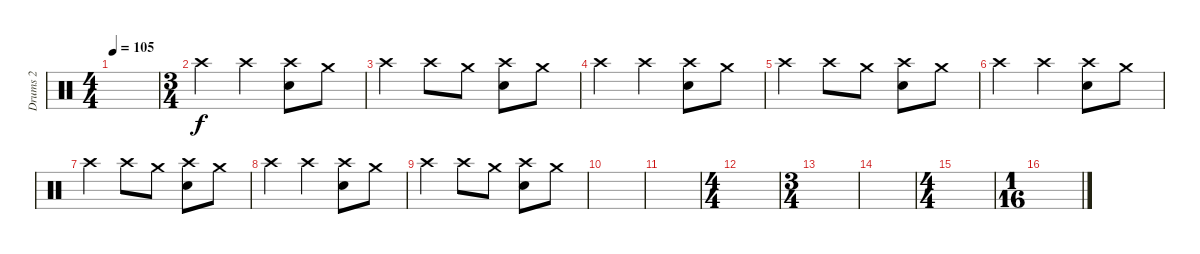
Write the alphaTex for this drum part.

\track ("Drums 2" "Drums 2") {instrument percussion}
\staff
\articulation defaults
\ts (4 4)
\tempo 105
\clef neutral
\ks c
|
\ts (3 4)
"Crash high (hit)".4 "Crash high (hit)".4 ("Crash high (hit)" "Electric Snare (hit)").8 "Crash medium (hit)".8 |
"Crash high (hit)".4 "Crash high (hit)".8 "Crash medium (hit)".8 ("Crash high (hit)" "Electric Snare (hit)").8 "Crash medium (hit)".8 |
"Crash high (hit)".4 "Crash high (hit)".4 ("Crash high (hit)" "Electric Snare (hit)").8 "Crash medium (hit)".8 |
"Crash high (hit)".4 "Crash high (hit)".8 "Crash medium (hit)".8 ("Crash high (hit)" "Electric Snare (hit)").8 "Crash medium (hit)".8 |
"Crash high (hit)".4 "Crash high (hit)".4 ("Crash high (hit)" "Electric Snare (hit)").8 "Crash medium (hit)".8 |
"Crash high (hit)".4 "Crash high (hit)".8 "Crash medium (hit)".8 ("Crash high (hit)" "Electric Snare (hit)").8 "Crash medium (hit)".8 |
"Crash high (hit)".4 "Crash high (hit)".4 ("Crash high (hit)" "Electric Snare (hit)").8 "Crash medium (hit)".8 |
"Crash high (hit)".4 "Crash high (hit)".8 "Crash medium (hit)".8 ("Crash high (hit)" "Electric Snare (hit)").8 "Crash medium (hit)".8 |
|
|
\ts (4 4)
|
\ts (3 4)
|
|
\ts (4 4)
|
\ts (1 16)
